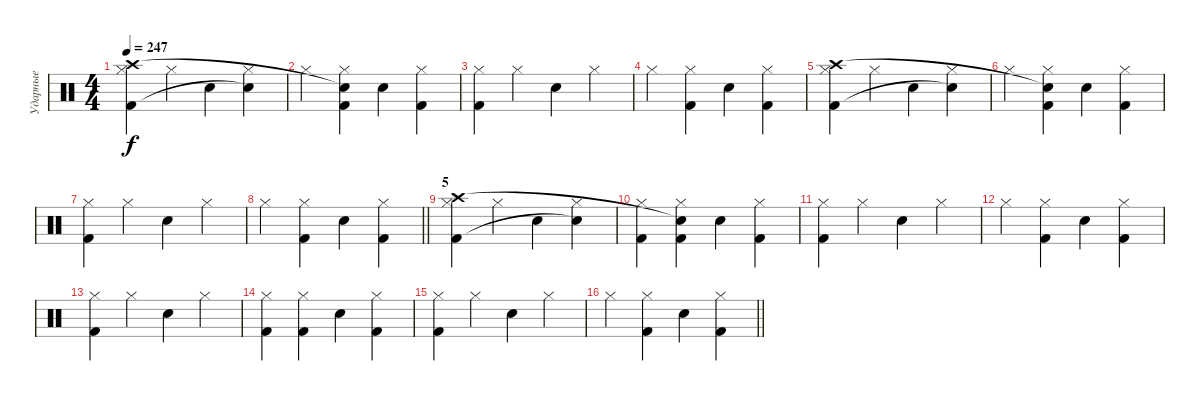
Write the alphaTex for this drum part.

\track ("Ударные" "Ударные") {instrument percussion}
\staff {score}
\articulation defaults
\ts (4 4)
\tempo 247
\clef neutral
\ks c
("Hi-Hat (closed)" "Kick (hit) 2" "Crash high (hit)").4{dy f} "Hi-Hat (closed)".4 "Snare (hit) 2".4 ("Hi-Hat (closed)" "Snare (hit)"{t}).4 |
"Hi-Hat (closed)".4 ("Hi-Hat (closed)" "Kick (hit) 2" "Snare (hit)"{t}).4 "Snare (hit) 2".4 ("Hi-Hat (closed)" "Kick (hit) 2").4 |
("Hi-Hat (closed)" "Kick (hit) 2").4 "Hi-Hat (closed)".4 "Snare (hit) 2".4 "Hi-Hat (closed)".4 |
"Hi-Hat (closed)".4 ("Hi-Hat (closed)" "Kick (hit) 2").4 "Snare (hit) 2".4 ("Hi-Hat (closed)" "Kick (hit) 2").4 |
("Hi-Hat (closed)" "Kick (hit) 2" "Crash high (hit)").4 "Hi-Hat (closed)".4 "Snare (hit) 2".4 ("Hi-Hat (closed)" "Snare (hit)"{t}).4 |
"Hi-Hat (closed)".4 ("Hi-Hat (closed)" "Kick (hit) 2" "Snare (hit)"{t}).4 "Snare (hit) 2".4 ("Hi-Hat (closed)" "Kick (hit) 2").4 |
("Hi-Hat (closed)" "Kick (hit) 2").4 "Hi-Hat (closed)".4 "Snare (hit) 2".4 "Hi-Hat (closed)".4 |
\barLineRight lightlight "Hi-Hat (closed)".4
("Hi-Hat (closed)" "Kick (hit) 2").4 "Snare (hit) 2".4 ("Hi-Hat (closed)" "Kick (hit) 2").4 |
\section ("" "5")
("Hi-Hat (closed)" "Kick (hit) 2" "Crash high (hit)").4 "Hi-Hat (closed)".4 "Snare (hit) 2".4 ("Hi-Hat (closed)" "Snare (hit)"{t}).4 |
("Hi-Hat (closed)" "Kick (hit) 2").4 ("Hi-Hat (closed)" "Kick (hit) 2" "Snare (hit)"{t}).4 "Snare (hit) 2".4 ("Hi-Hat (closed)" "Kick (hit) 2").4 |
("Hi-Hat (closed)" "Kick (hit) 2").4 "Hi-Hat (closed)".4 "Snare (hit) 2".4 "Hi-Hat (closed)".4 |
"Hi-Hat (closed)".4 ("Hi-Hat (closed)" "Kick (hit) 2").4 "Snare (hit) 2".4 ("Hi-Hat (closed)" "Kick (hit) 2").4 |
("Hi-Hat (closed)" "Kick (hit) 2").4 "Hi-Hat (closed)".4 "Snare (hit) 2".4 "Hi-Hat (closed)".4 |
("Hi-Hat (closed)" "Kick (hit) 2").4 ("Hi-Hat (closed)" "Kick (hit) 2").4 "Snare (hit) 2".4 ("Hi-Hat (closed)" "Kick (hit) 2").4 |
("Hi-Hat (closed)" "Kick (hit) 2").4 "Hi-Hat (closed)".4 "Snare (hit) 2".4 "Hi-Hat (closed)".4 |
\barLineRight lightlight "Hi-Hat (closed)".4
("Hi-Hat (closed)" "Kick (hit) 2").4 "Snare (hit) 2".4 ("Hi-Hat (closed)" "Kick (hit) 2").4
